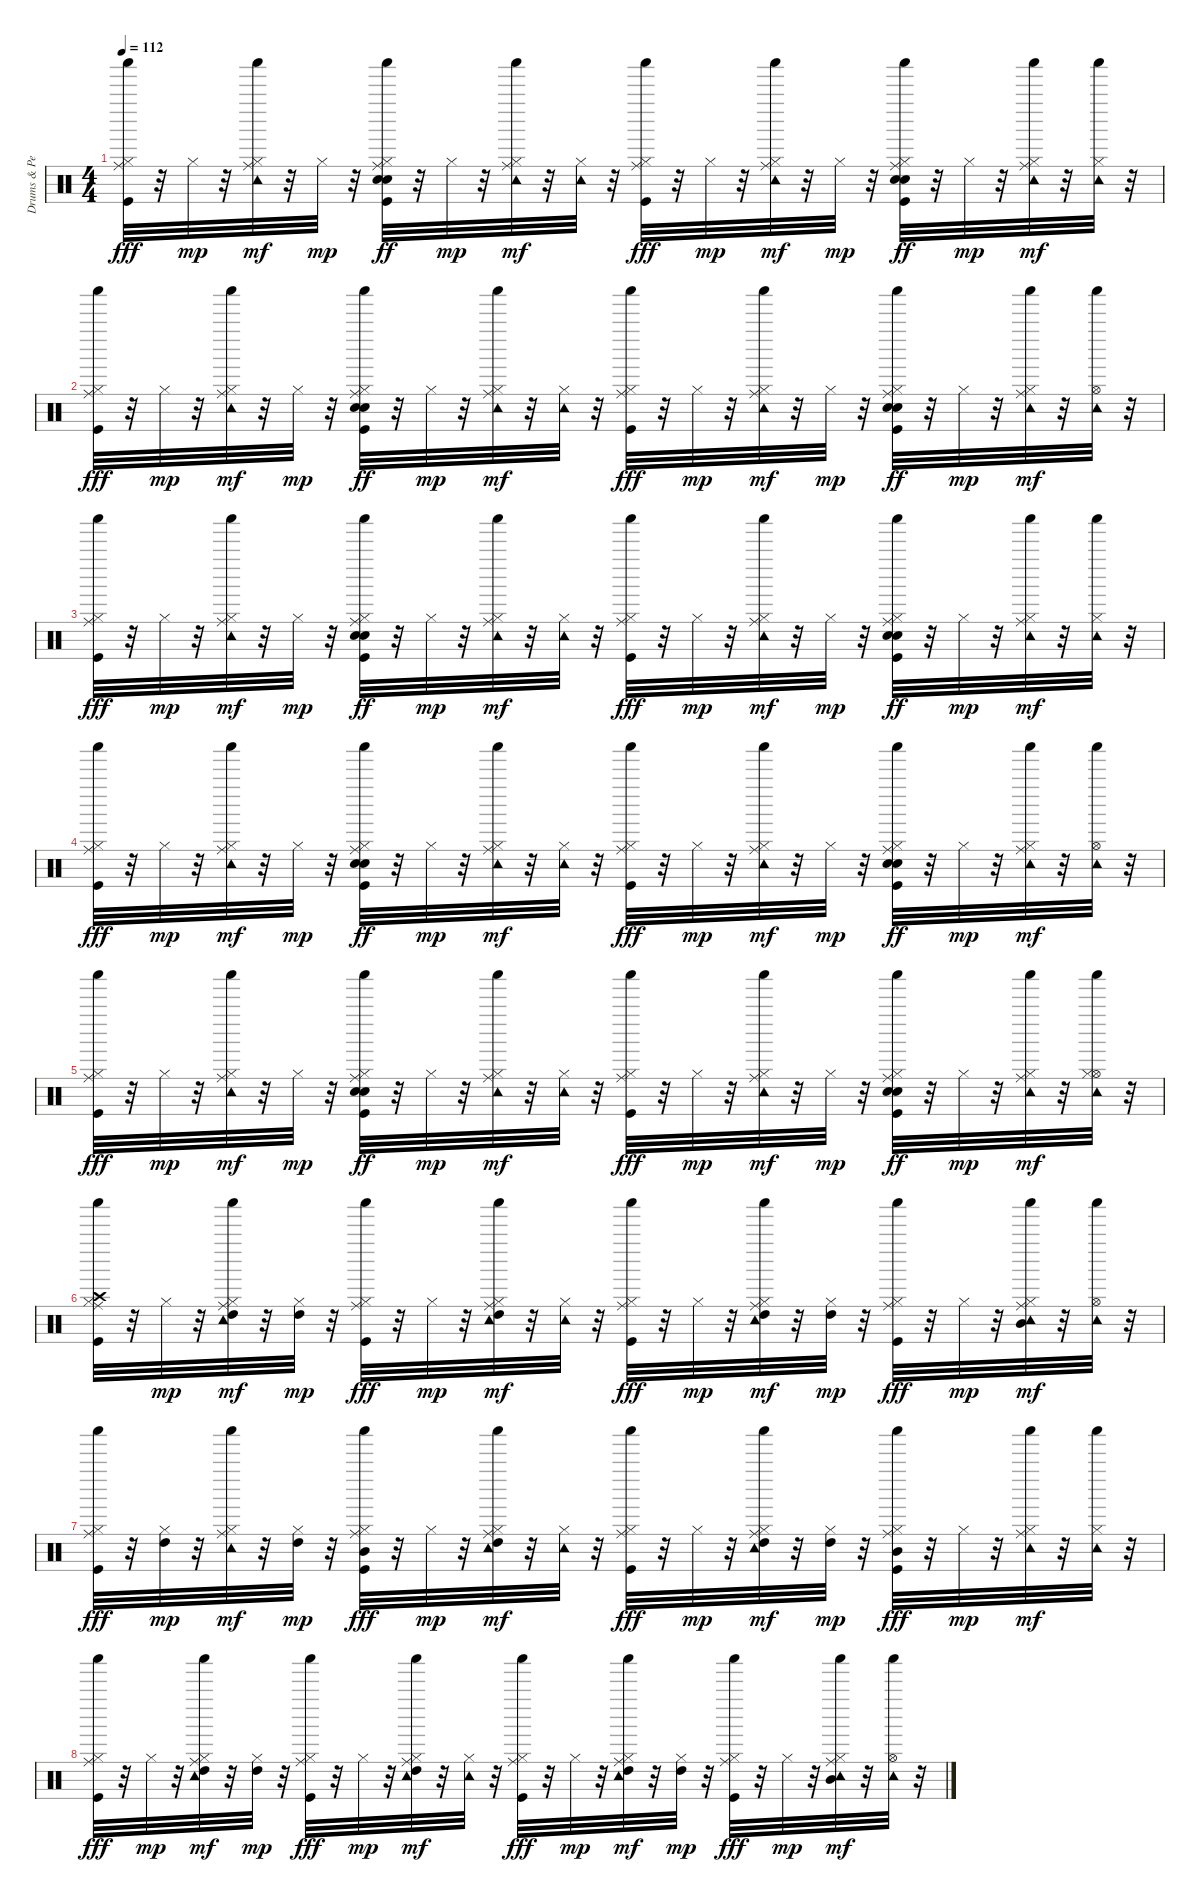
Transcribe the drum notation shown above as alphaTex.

\track ("Drums & Percussion" "Drums & Pe") {instrument percussion}
\staff {score}
\articulation defaults
\ts (4 4)
\tempo 112
\clef neutral
\ks c
("Shaker (hit)" "Hi-Hat (closed)" "Ride (middle)" "Kick (hit)").32{dy fff} r.32 "Hi-Hat (closed)".32{dy mp} r.32 ("Shaker (hit)" "Hi-Hat (closed)" "Ride (middle)" "Tambourine (hit)").32{dy mf} r.32 "Hi-Hat (closed)".32{dy mp} r.32 ("Shaker (hit)" "Snare (hit) 2" "Hi-Hat (closed)" "Ride (middle)" "Hand Clap (hit)" "Kick (hit)").32{dy ff} r.32 "Hi-Hat (closed)".32{dy mp} r.32 ("Shaker (hit)" "Hi-Hat (closed)" "Ride (middle)" "Tambourine (hit)").32{dy mf} r.32 ("Hi-Hat (closed)" "Tambourine (hit)").32 r.32 ("Shaker (hit)" "Hi-Hat (closed)" "Ride (middle)" "Kick (hit)").32{dy fff} r.32 "Hi-Hat (closed)".32{dy mp} r.32 ("Shaker (hit)" "Hi-Hat (closed)" "Ride (middle)" "Tambourine (hit)").32{dy mf} r.32 "Hi-Hat (closed)".32{dy mp} r.32 ("Shaker (hit)" "Snare (hit) 2" "Hi-Hat (closed)" "Ride (middle)" "Hand Clap (hit)" "Kick (hit)").32{dy ff} r.32 "Hi-Hat (closed)".32{dy mp} r.32 ("Shaker (hit)" "Hi-Hat (closed)" "Ride (middle)" "Tambourine (hit)").32{dy mf} r.32 ("Shaker (hit)" "Hi-Hat (closed)" "Tambourine (hit)").32 r.32 |
("Shaker (hit)" "Hi-Hat (closed)" "Ride (middle)" "Kick (hit)").32{dy fff} r.32 "Hi-Hat (closed)".32{dy mp} r.32 ("Shaker (hit)" "Hi-Hat (closed)" "Ride (middle)" "Tambourine (hit)").32{dy mf} r.32 "Hi-Hat (closed)".32{dy mp} r.32 ("Shaker (hit)" "Snare (hit) 2" "Hi-Hat (closed)" "Ride (middle)" "Hand Clap (hit)" "Kick (hit)").32{dy ff} r.32 "Hi-Hat (closed)".32{dy mp} r.32 ("Shaker (hit)" "Hi-Hat (closed)" "Ride (middle)" "Tambourine (hit)").32{dy mf} r.32 ("Hi-Hat (closed)" "Tambourine (hit)").32 r.32 ("Shaker (hit)" "Hi-Hat (closed)" "Ride (middle)" "Kick (hit)").32{dy fff} r.32 "Hi-Hat (closed)".32{dy mp} r.32 ("Shaker (hit)" "Hi-Hat (closed)" "Ride (middle)" "Tambourine (hit)").32{dy mf} r.32 "Hi-Hat (closed)".32{dy mp} r.32 ("Shaker (hit)" "Snare (hit) 2" "Hi-Hat (closed)" "Ride (middle)" "Hand Clap (hit)" "Kick (hit)").32{dy ff} r.32 "Hi-Hat (closed)".32{dy mp} r.32 ("Shaker (hit)" "Hi-Hat (closed)" "Ride (middle)" "Tambourine (hit)").32{dy mf} r.32 ("Hi-Hat (open)" "Shaker (hit)" "Tambourine (hit)").32 r.32 |
("Shaker (hit)" "Hi-Hat (closed)" "Ride (middle)" "Kick (hit)").32{dy fff} r.32 "Hi-Hat (closed)".32{dy mp} r.32 ("Shaker (hit)" "Hi-Hat (closed)" "Ride (middle)" "Tambourine (hit)").32{dy mf} r.32 "Hi-Hat (closed)".32{dy mp} r.32 ("Shaker (hit)" "Snare (hit) 2" "Hi-Hat (closed)" "Ride (middle)" "Hand Clap (hit)" "Kick (hit)").32{dy ff} r.32 "Hi-Hat (closed)".32{dy mp} r.32 ("Shaker (hit)" "Hi-Hat (closed)" "Ride (middle)" "Tambourine (hit)").32{dy mf} r.32 ("Hi-Hat (closed)" "Tambourine (hit)").32 r.32 ("Shaker (hit)" "Hi-Hat (closed)" "Ride (middle)" "Kick (hit)").32{dy fff} r.32 "Hi-Hat (closed)".32{dy mp} r.32 ("Shaker (hit)" "Hi-Hat (closed)" "Ride (middle)" "Tambourine (hit)").32{dy mf} r.32 "Hi-Hat (closed)".32{dy mp} r.32 ("Shaker (hit)" "Snare (hit) 2" "Hi-Hat (closed)" "Ride (middle)" "Hand Clap (hit)" "Kick (hit)").32{dy ff} r.32 "Hi-Hat (closed)".32{dy mp} r.32 ("Shaker (hit)" "Hi-Hat (closed)" "Ride (middle)" "Tambourine (hit)").32{dy mf} r.32 ("Shaker (hit)" "Hi-Hat (closed)" "Tambourine (hit)").32 r.32 |
("Shaker (hit)" "Hi-Hat (closed)" "Ride (middle)" "Kick (hit)").32{dy fff} r.32 "Hi-Hat (closed)".32{dy mp} r.32 ("Shaker (hit)" "Hi-Hat (closed)" "Ride (middle)" "Tambourine (hit)").32{dy mf} r.32 "Hi-Hat (closed)".32{dy mp} r.32 ("Shaker (hit)" "Snare (hit) 2" "Hi-Hat (closed)" "Ride (middle)" "Hand Clap (hit)" "Kick (hit)").32{dy ff} r.32 "Hi-Hat (closed)".32{dy mp} r.32 ("Shaker (hit)" "Hi-Hat (closed)" "Ride (middle)" "Tambourine (hit)").32{dy mf} r.32 ("Hi-Hat (closed)" "Tambourine (hit)").32 r.32 ("Shaker (hit)" "Hi-Hat (closed)" "Ride (middle)" "Kick (hit)").32{dy fff} r.32 "Hi-Hat (closed)".32{dy mp} r.32 ("Shaker (hit)" "Hi-Hat (closed)" "Ride (middle)" "Tambourine (hit)").32{dy mf} r.32 "Hi-Hat (closed)".32{dy mp} r.32 ("Shaker (hit)" "Snare (hit) 2" "Hi-Hat (closed)" "Ride (middle)" "Hand Clap (hit)" "Kick (hit)").32{dy ff} r.32 "Hi-Hat (closed)".32{dy mp} r.32 ("Shaker (hit)" "Hi-Hat (closed)" "Ride (middle)" "Tambourine (hit)").32{dy mf} r.32 ("Hi-Hat (open)" "Shaker (hit)" "Tambourine (hit)").32 r.32 |
("Shaker (hit)" "Hi-Hat (closed)" "Ride (middle)" "Kick (hit)").32{dy fff} r.32 "Hi-Hat (closed)".32{dy mp} r.32 ("Shaker (hit)" "Hi-Hat (closed)" "Ride (middle)" "Tambourine (hit)").32{dy mf} r.32 "Hi-Hat (closed)".32{dy mp} r.32 ("Shaker (hit)" "Snare (hit) 2" "Hi-Hat (closed)" "Ride (middle)" "Hand Clap (hit)" "Kick (hit)").32{dy ff} r.32 "Hi-Hat (closed)".32{dy mp} r.32 ("Shaker (hit)" "Hi-Hat (closed)" "Ride (middle)" "Tambourine (hit)").32{dy mf} r.32 ("Hi-Hat (closed)" "Tambourine (hit)").32 r.32 ("Shaker (hit)" "Hi-Hat (closed)" "Ride (middle)" "Kick (hit)").32{dy fff} r.32 "Hi-Hat (closed)".32{dy mp} r.32 ("Shaker (hit)" "Hi-Hat (closed)" "Ride (middle)" "Tambourine (hit)").32{dy mf} r.32 "Hi-Hat (closed)".32{dy mp} r.32 ("Shaker (hit)" "Snare (hit) 2" "Hi-Hat (closed)" "Ride (middle)" "Hand Clap (hit)" "Kick (hit)").32{dy ff} r.32 "Hi-Hat (closed)".32{dy mp} r.32 ("Shaker (hit)" "Hi-Hat (closed)" "Ride (middle)" "Tambourine (hit)").32{dy mf} r.32 ("Hi-Hat (open)" "Shaker (hit)" "Hi-Hat (closed)" "Tambourine (hit)").32 r.32 |
("Shaker (hit)" "Hi-Hat (closed)" "Ride (middle)" "Crash high (hit)" "Kick (hit)").32 r.32 "Hi-Hat (closed)".32{dy mp} r.32 ("Shaker (hit)" "Hi-Hat (closed)" "Ride (middle)" "Tambourine (hit)" "High Tom (hit)").32{dy mf} r.32 ("Hi-Hat (closed)" "High Tom (hit)").32{dy mp} r.32 ("Shaker (hit)" "Hi-Hat (closed)" "Ride (middle)" "Kick (hit)").32{dy fff} r.32 "Hi-Hat (closed)".32{dy mp} r.32 ("Shaker (hit)" "Hi-Hat (closed)" "Ride (middle)" "Tambourine (hit)" "High Tom (hit)").32{dy mf} r.32 ("Hi-Hat (closed)" "Tambourine (hit)").32 r.32 ("Shaker (hit)" "Hi-Hat (closed)" "Ride (middle)" "Kick (hit)").32{dy fff} r.32 "Hi-Hat (closed)".32{dy mp} r.32 ("Shaker (hit)" "Hi-Hat (closed)" "Ride (middle)" "Tambourine (hit)" "High Tom (hit)").32{dy mf} r.32 ("Hi-Hat (closed)" "High Tom (hit)").32{dy mp} r.32 ("Shaker (hit)" "Hi-Hat (closed)" "Ride (middle)" "Kick (hit)").32{dy fff} r.32 "Hi-Hat (closed)".32{dy mp} r.32 ("Shaker (hit)" "Hi-Hat (closed)" "Ride (middle)" "Tambourine (hit)" "Mid Tom (hit)").32{dy mf} r.32 ("Hi-Hat (open)" "Shaker (hit)" "Tambourine (hit)").32 r.32 |
("Shaker (hit)" "Hi-Hat (closed)" "Ride (middle)" "Kick (hit)").32{dy fff} r.32 ("Hi-Hat (closed)" "High Tom (hit)").32{dy mp} r.32 ("Shaker (hit)" "Hi-Hat (closed)" "Ride (middle)" "Tambourine (hit)").32{dy mf} r.32 ("Hi-Hat (closed)" "High Tom (hit)").32{dy mp} r.32 ("Shaker (hit)" "Hi-Hat (closed)" "Ride (middle)" "Mid Tom (hit)" "Kick (hit)").32{dy fff} r.32 "Hi-Hat (closed)".32{dy mp} r.32 ("Shaker (hit)" "Hi-Hat (closed)" "Ride (middle)" "Tambourine (hit)" "High Tom (hit)").32{dy mf} r.32 ("Hi-Hat (closed)" "Tambourine (hit)").32 r.32 ("Shaker (hit)" "Hi-Hat (closed)" "Ride (middle)" "Kick (hit)").32{dy fff} r.32 "Hi-Hat (closed)".32{dy mp} r.32 ("Shaker (hit)" "Hi-Hat (closed)" "Ride (middle)" "Tambourine (hit)" "High Tom (hit)").32{dy mf} r.32 ("Hi-Hat (closed)" "High Tom (hit)").32{dy mp} r.32 ("Shaker (hit)" "Hi-Hat (closed)" "Ride (middle)" "Mid Tom (hit)" "Kick (hit)").32{dy fff} r.32 "Hi-Hat (closed)".32{dy mp} r.32 ("Shaker (hit)" "Hi-Hat (closed)" "Ride (middle)" "Tambourine (hit)").32{dy mf} r.32 ("Shaker (hit)" "Hi-Hat (closed)" "Tambourine (hit)").32 r.32 |
("Shaker (hit)" "Hi-Hat (closed)" "Ride (middle)" "Kick (hit)").32{dy fff} r.32 "Hi-Hat (closed)".32{dy mp} r.32 ("Shaker (hit)" "Hi-Hat (closed)" "Ride (middle)" "Tambourine (hit)" "High Tom (hit)").32{dy mf} r.32 ("Hi-Hat (closed)" "High Tom (hit)").32{dy mp} r.32 ("Shaker (hit)" "Hi-Hat (closed)" "Ride (middle)" "Kick (hit)").32{dy fff} r.32 "Hi-Hat (closed)".32{dy mp} r.32 ("Shaker (hit)" "Hi-Hat (closed)" "Ride (middle)" "Tambourine (hit)" "High Tom (hit)").32{dy mf} r.32 ("Hi-Hat (closed)" "Tambourine (hit)").32 r.32 ("Shaker (hit)" "Hi-Hat (closed)" "Ride (middle)" "Kick (hit)").32{dy fff} r.32 "Hi-Hat (closed)".32{dy mp} r.32 ("Shaker (hit)" "Hi-Hat (closed)" "Ride (middle)" "Tambourine (hit)" "High Tom (hit)").32{dy mf} r.32 ("Hi-Hat (closed)" "High Tom (hit)").32{dy mp} r.32 ("Shaker (hit)" "Hi-Hat (closed)" "Ride (middle)" "Kick (hit)").32{dy fff} r.32 "Hi-Hat (closed)".32{dy mp} r.32 ("Shaker (hit)" "Hi-Hat (closed)" "Ride (middle)" "Tambourine (hit)" "Mid Tom (hit)").32{dy mf} r.32 ("Hi-Hat (open)" "Shaker (hit)" "Tambourine (hit)").32 r.32
